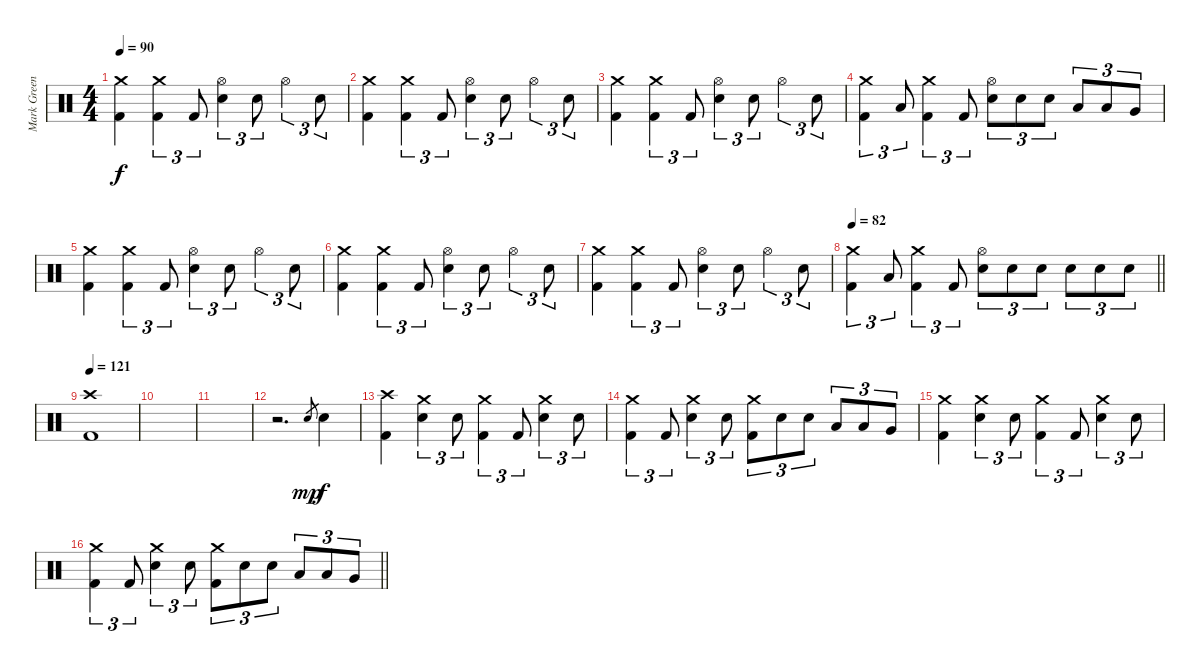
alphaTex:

\track ("Mark Greening" "Mark Green") {instrument percussion}
\staff {score}
\articulation defaults
\ts (4 4)
\section ("" "")
\tempo 90
\clef neutral
\ks c
("Crash medium (hit)" "Kick (hit) 2").4{dy f} ("Crash medium (hit)" "Kick (hit) 2").4{tu (3 2)} "Kick (hit) 2".8{tu (3 2)} ("Hi-Hat (open)" "Electric Snare (hit)").4{tu (3 2)} "Electric Snare (hit)".8{tu (3 2)} "Hi-Hat (open)".4{tu (3 2)} "Electric Snare (hit)".8{tu (3 2)} |
("Crash medium (hit)" "Kick (hit) 2").4 ("Crash medium (hit)" "Kick (hit) 2").4{tu (3 2)} "Kick (hit) 2".8{tu (3 2)} ("Hi-Hat (open)" "Electric Snare (hit)").4{tu (3 2)} "Electric Snare (hit)".8{tu (3 2)} "Hi-Hat (open)".4{tu (3 2)} "Electric Snare (hit)".8{tu (3 2)} |
("Crash medium (hit)" "Kick (hit) 2").4 ("Crash medium (hit)" "Kick (hit) 2").4{tu (3 2)} "Kick (hit) 2".8{tu (3 2)} ("Hi-Hat (open)" "Electric Snare (hit)").4{tu (3 2)} "Electric Snare (hit)".8{tu (3 2)} "Hi-Hat (open)".4{tu (3 2)} "Electric Snare (hit)".8{tu (3 2)} |
("Crash medium (hit)" "Kick (hit) 2").4{tu (3 2)} "Low Floor Tom (hit)".8{tu (3 2)} ("Crash medium (hit)" "Kick (hit) 2").4{tu (3 2)} "Kick (hit) 2".8{tu (3 2)} ("Hi-Hat (open)" "Electric Snare (hit)").8{tu (3 2)} "Electric Snare (hit)".8{tu (3 2)} "Electric Snare (hit)".8{tu (3 2)} "Low Tom (hit)".8{tu (3 2)} "Low Tom (hit)".8{tu (3 2)} "Very Low Tom (hit)".8{tu (3 2)} |
("Crash medium (hit)" "Kick (hit) 2").4 ("Crash medium (hit)" "Kick (hit) 2").4{tu (3 2)} "Kick (hit) 2".8{tu (3 2)} ("Hi-Hat (open)" "Electric Snare (hit)").4{tu (3 2)} "Electric Snare (hit)".8{tu (3 2)} "Hi-Hat (open)".4{tu (3 2)} "Electric Snare (hit)".8{tu (3 2)} |
("Crash medium (hit)" "Kick (hit) 2").4 ("Crash medium (hit)" "Kick (hit) 2").4{tu (3 2)} "Kick (hit) 2".8{tu (3 2)} ("Hi-Hat (open)" "Electric Snare (hit)").4{tu (3 2)} "Electric Snare (hit)".8{tu (3 2)} "Hi-Hat (open)".4{tu (3 2)} "Electric Snare (hit)".8{tu (3 2)} |
("Crash medium (hit)" "Kick (hit) 2").4 ("Crash medium (hit)" "Kick (hit) 2").4{tu (3 2)} "Kick (hit) 2".8{tu (3 2)} ("Hi-Hat (open)" "Electric Snare (hit)").4{tu (3 2)} "Electric Snare (hit)".8{tu (3 2)} "Hi-Hat (open)".4{tu (3 2)} "Electric Snare (hit)".8{tu (3 2)} |
\tempo 82
\barLineRight lightlight
("Crash medium (hit)" "Kick (hit) 2").4{tu (3 2)} "Low Floor Tom (hit)".8{tu (3 2)} ("Crash medium (hit)" "Kick (hit) 2").4{tu (3 2)} "Kick (hit) 2".8{tu (3 2)} ("Hi-Hat (open)" "Electric Snare (hit)").8{tu (3 2)} "Electric Snare (hit)".8{tu (3 2)} "Electric Snare (hit)".8{tu (3 2)} "Electric Snare (hit)".8{tu (3 2)} "Electric Snare (hit)".8{tu (3 2)} "Electric Snare (hit)".8{tu (3 2)} |
\section ("" "")
\tempo 121
("Crash high (hit)" "Kick (hit) 2").1 |
|
|
r.2{d} "Electric Snare (hit)".8{gr dy mp} "Electric Snare (hit)".4{dy f} |
("Crash high (hit)" "Kick (hit) 2").4 ("Crash medium (hit)" "Electric Snare (hit)").4{tu (3 2)} "Electric Snare (hit)".8{tu (3 2)} ("Crash medium (hit)" "Kick (hit) 2").4{tu (3 2)} "Kick (hit) 2".8{tu (3 2)} ("Crash medium (hit)" "Electric Snare (hit)").4{tu (3 2)} "Electric Snare (hit)".8{tu (3 2)} |
("Crash medium (hit)" "Kick (hit) 2").4{tu (3 2)} "Kick (hit) 2".8{tu (3 2)} ("Crash medium (hit)" "Electric Snare (hit)").4{tu (3 2)} "Electric Snare (hit)".8{tu (3 2)} ("Crash medium (hit)" "Kick (hit) 2").8{tu (3 2)} "Electric Snare (hit)".8{tu (3 2)} "Electric Snare (hit)".8{tu (3 2)} "Low Tom (hit)".8{tu (3 2)} "Low Tom (hit)".8{tu (3 2)} "Very Low Tom (hit)".8{tu (3 2)} |
("Crash medium (hit)" "Kick (hit) 2").4 ("Crash medium (hit)" "Electric Snare (hit)").4{tu (3 2)} "Electric Snare (hit)".8{tu (3 2)} ("Crash medium (hit)" "Kick (hit) 2").4{tu (3 2)} "Kick (hit) 2".8{tu (3 2)} ("Crash medium (hit)" "Electric Snare (hit)").4{tu (3 2)} "Electric Snare (hit)".8{tu (3 2)} |
\barLineRight lightlight
("Crash medium (hit)" "Kick (hit) 2").4{tu (3 2)} "Kick (hit) 2".8{tu (3 2)} ("Crash medium (hit)" "Electric Snare (hit)").4{tu (3 2)} "Electric Snare (hit)".8{tu (3 2)} ("Crash medium (hit)" "Kick (hit) 2").8{tu (3 2)} "Electric Snare (hit)".8{tu (3 2)} "Electric Snare (hit)".8{tu (3 2)} "Low Tom (hit)".8{tu (3 2)} "Low Tom (hit)".8{tu (3 2)} "Very Low Tom (hit)".8{tu (3 2)}
